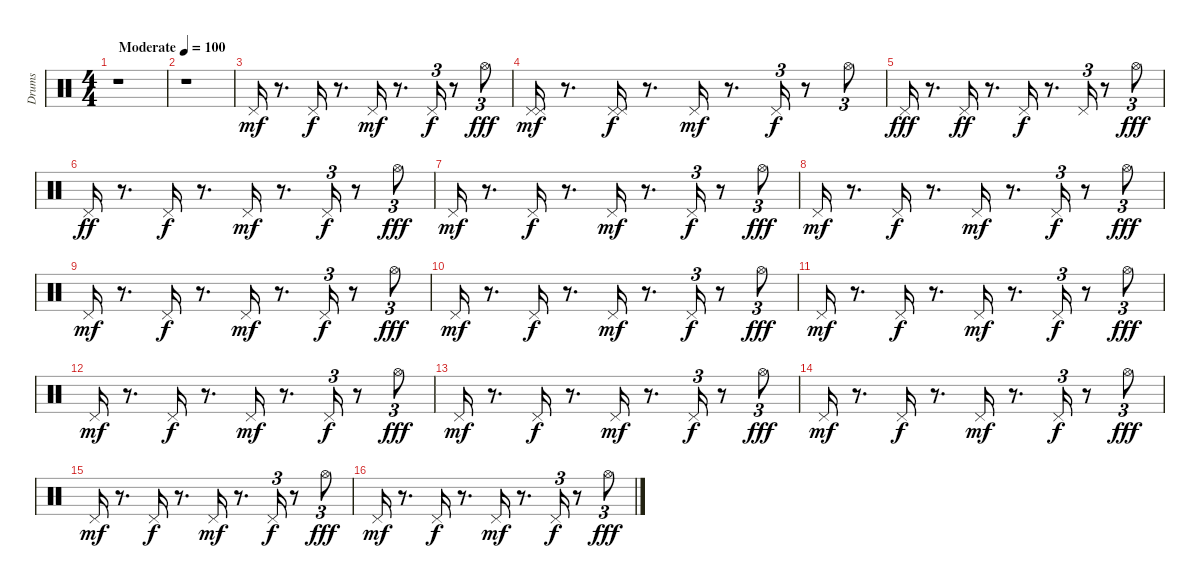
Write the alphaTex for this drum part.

\track ("Drums" "Drums") {instrument percussion}
\staff {score}
\articulation defaults
\ts (4 4)
\tempo (100 "Moderate")
\clef neutral
\ks c
r.1{dy mf} |
r.1 |
"Pedal Hi-Hat (hit)".16 r.8{d} "Pedal Hi-Hat (hit)".16{dy f} r.8{d} "Pedal Hi-Hat (hit)".16{dy mf} r.8{d} "Pedal Hi-Hat (hit)".16{tu (3 2) dy f} r.8 "Hi-Hat (open)".8{tu (3 2) dy fff} |
("Pedal Hi-Hat (hit)" "Pedal Hi-Hat (hit)").16{dy mf} r.8{d} ("Pedal Hi-Hat (hit)" "Pedal Hi-Hat (hit)").16{dy f} r.8{d} "Pedal Hi-Hat (hit)".16{dy mf} r.8{d} "Pedal Hi-Hat (hit)".16{tu (3 2) dy f} r.8 "Hi-Hat (open)".8{tu (3 2)} |
"Pedal Hi-Hat (hit)".16{dy fff} r.8{d} "Pedal Hi-Hat (hit)".16{dy ff} r.8{d} "Pedal Hi-Hat (hit)".16{dy f} r.8{d} "Pedal Hi-Hat (hit)".16{tu (3 2)} r.8 "Hi-Hat (open)".8{tu (3 2) dy fff} |
"Pedal Hi-Hat (hit)".16{dy ff} r.8{d} "Pedal Hi-Hat (hit)".16{dy f} r.8{d} "Pedal Hi-Hat (hit)".16{dy mf} r.8{d} "Pedal Hi-Hat (hit)".16{tu (3 2) dy f} r.8 "Hi-Hat (open)".8{tu (3 2) dy fff} |
"Pedal Hi-Hat (hit)".16{dy mf} r.8{d} "Pedal Hi-Hat (hit)".16{dy f} r.8{d} "Pedal Hi-Hat (hit)".16{dy mf} r.8{d} "Pedal Hi-Hat (hit)".16{tu (3 2) dy f} r.8 "Hi-Hat (open)".8{tu (3 2) dy fff} |
"Pedal Hi-Hat (hit)".16{dy mf} r.8{d} "Pedal Hi-Hat (hit)".16{dy f} r.8{d} "Pedal Hi-Hat (hit)".16{dy mf} r.8{d} "Pedal Hi-Hat (hit)".16{tu (3 2) dy f} r.8 "Hi-Hat (open)".8{tu (3 2) dy fff} |
"Pedal Hi-Hat (hit)".16{dy mf} r.8{d} "Pedal Hi-Hat (hit)".16{dy f} r.8{d} "Pedal Hi-Hat (hit)".16{dy mf} r.8{d} "Pedal Hi-Hat (hit)".16{tu (3 2) dy f} r.8 "Hi-Hat (open)".8{tu (3 2) dy fff} |
"Pedal Hi-Hat (hit)".16{dy mf} r.8{d} "Pedal Hi-Hat (hit)".16{dy f} r.8{d} "Pedal Hi-Hat (hit)".16{dy mf} r.8{d} "Pedal Hi-Hat (hit)".16{tu (3 2) dy f} r.8 "Hi-Hat (open)".8{tu (3 2) dy fff} |
"Pedal Hi-Hat (hit)".16{dy mf} r.8{d} "Pedal Hi-Hat (hit)".16{dy f} r.8{d} "Pedal Hi-Hat (hit)".16{dy mf} r.8{d} "Pedal Hi-Hat (hit)".16{tu (3 2) dy f} r.8 "Hi-Hat (open)".8{tu (3 2) dy fff} |
"Pedal Hi-Hat (hit)".16{dy mf} r.8{d} "Pedal Hi-Hat (hit)".16{dy f} r.8{d} "Pedal Hi-Hat (hit)".16{dy mf} r.8{d} "Pedal Hi-Hat (hit)".16{tu (3 2) dy f} r.8 "Hi-Hat (open)".8{tu (3 2) dy fff} |
"Pedal Hi-Hat (hit)".16{dy mf} r.8{d} "Pedal Hi-Hat (hit)".16{dy f} r.8{d} "Pedal Hi-Hat (hit)".16{dy mf} r.8{d} "Pedal Hi-Hat (hit)".16{tu (3 2) dy f} r.8 "Hi-Hat (open)".8{tu (3 2) dy fff} |
"Pedal Hi-Hat (hit)".16{dy mf} r.8{d} "Pedal Hi-Hat (hit)".16{dy f} r.8{d} "Pedal Hi-Hat (hit)".16{dy mf} r.8{d} "Pedal Hi-Hat (hit)".16{tu (3 2) dy f} r.8 "Hi-Hat (open)".8{tu (3 2) dy fff} |
"Pedal Hi-Hat (hit)".16{dy mf} r.8{d} "Pedal Hi-Hat (hit)".16{dy f} r.8{d} "Pedal Hi-Hat (hit)".16{dy mf} r.8{d} "Pedal Hi-Hat (hit)".16{tu (3 2) dy f} r.8 "Hi-Hat (open)".8{tu (3 2) dy fff} |
"Pedal Hi-Hat (hit)".16{dy mf} r.8{d} "Pedal Hi-Hat (hit)".16{dy f} r.8{d} "Pedal Hi-Hat (hit)".16{dy mf} r.8{d} "Pedal Hi-Hat (hit)".16{tu (3 2) dy f} r.8 "Hi-Hat (open)".8{tu (3 2) dy fff}
